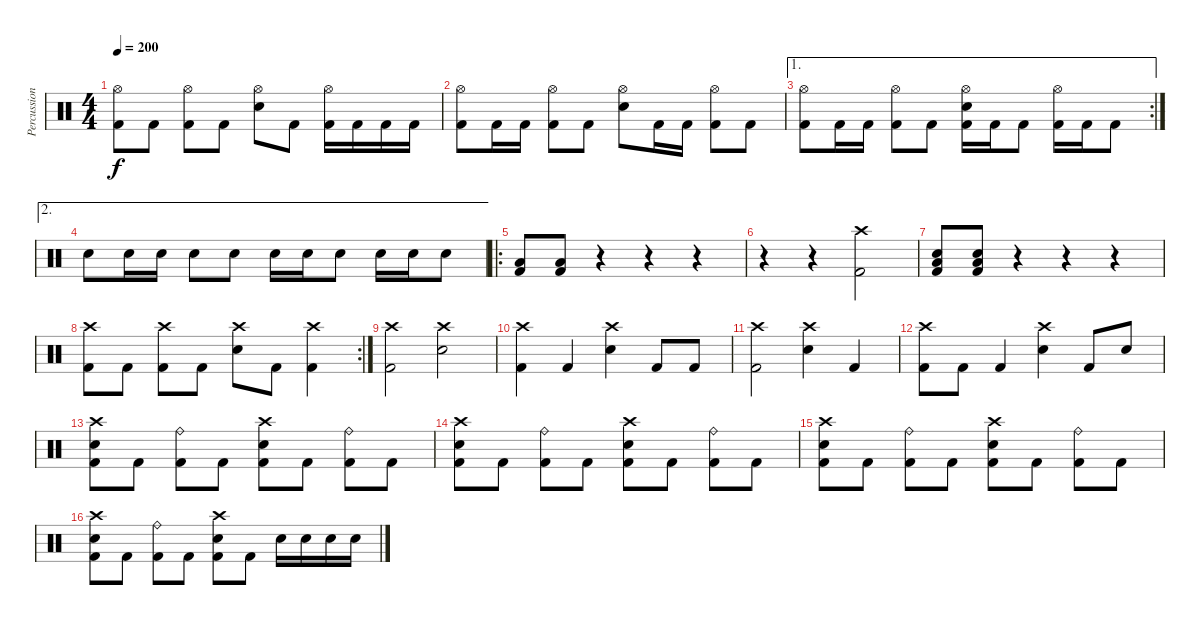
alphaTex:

\track ("Percussions" "Percussion") {instrument percussion}
\staff {score}
\articulation defaults
\ts (4 4)
\tempo 200
\clef neutral
\ks c
("Hi-Hat (open)" "Kick (hit) 2").8{dy f} "Kick (hit) 2".8 ("Hi-Hat (open)" "Kick (hit) 2").8 "Kick (hit) 2".8 ("Hi-Hat (open)" "Snare (hit) 2").8 "Kick (hit) 2".8 ("Hi-Hat (open)" "Kick (hit) 2").16 "Kick (hit) 2".16 "Kick (hit) 2".16 "Kick (hit) 2".16 |
("Hi-Hat (open)" "Kick (hit) 2").8 "Kick (hit) 2".16 "Kick (hit) 2".16 ("Hi-Hat (open)" "Kick (hit) 2").8 "Kick (hit) 2".8 ("Hi-Hat (open)" "Snare (hit) 2").8 "Kick (hit) 2".16 "Kick (hit) 2".16 ("Hi-Hat (open)" "Kick (hit) 2").8 "Kick (hit) 2".8 |
\ae 1
\rc 2
("Hi-Hat (open)" "Kick (hit) 2").8 "Kick (hit) 2".16 "Kick (hit) 2".16 ("Hi-Hat (open)" "Kick (hit) 2").8 "Kick (hit) 2".8 ("Hi-Hat (open)" "Snare (hit) 2" "Kick (hit) 2").16 "Kick (hit) 2".16 "Kick (hit) 2".8 ("Hi-Hat (open)" "Kick (hit) 2").16 "Kick (hit) 2".16 "Kick (hit) 2".8 |
\ae 2 "Snare (hit) 2".8 "Snare (hit) 2".16 "Snare (hit) 2".16 "Snare (hit) 2".8 "Snare (hit) 2".8 "Snare (hit) 2".16 "Snare (hit) 2".16 "Snare (hit) 2".8 "Snare (hit) 2".16 "Snare (hit) 2".16 "Snare (hit) 2".8
|
\ro
("Low Floor Tom (hit)" "Kick (hit) 2").8 ("Low Floor Tom (hit)" "Kick (hit) 2").8 r.4 r.4 r.4 |
r.4 r.4 ("Crash high (hit)" "Kick (hit) 2").2 |
("Snare (hit) 2" "Low Floor Tom (hit)" "Kick (hit) 2").8 ("Snare (hit) 2" "Low Floor Tom (hit)" "Kick (hit) 2").8 r.4 r.4 r.4 |
\rc 2
("Crash high (hit)" "Kick (hit) 2").8 "Kick (hit) 2".8 ("Crash high (hit)" "Kick (hit) 2").8 "Kick (hit) 2".8 ("Crash high (hit)" "Snare (hit) 2").8 "Kick (hit) 2".8 ("Crash high (hit)" "Kick (hit) 2").4 |
("Crash high (hit)" "Kick (hit) 2").2 ("Crash high (hit)" "Snare (hit) 2").2 |
("Crash high (hit)" "Kick (hit) 2").4 "Kick (hit) 2".4 ("Crash high (hit)" "Snare (hit) 2").4 "Kick (hit) 2".8 "Kick (hit) 2".8 |
("Crash high (hit)" "Kick (hit) 2").2 ("Crash high (hit)" "Snare (hit) 2").4 "Kick (hit) 2".4 |
("Crash high (hit)" "Kick (hit) 2").8 "Kick (hit) 2".8 "Kick (hit) 2".4 ("Crash high (hit)" "Snare (hit) 2").4 "Kick (hit) 2".8 "Snare (hit) 2".8 |
("Crash high (hit)" "Snare (hit) 2" "Kick (hit) 2").8 "Kick (hit) 2".8 ("Ride (bell)" "Kick (hit) 2").8 "Kick (hit) 2".8 ("Crash high (hit)" "Snare (hit) 2" "Kick (hit) 2").8 "Kick (hit) 2".8 ("Ride (bell)" "Kick (hit) 2").8 "Kick (hit) 2".8 |
("Crash high (hit)" "Snare (hit) 2" "Kick (hit) 2").8 "Kick (hit) 2".8 ("Ride (bell)" "Kick (hit) 2").8 "Kick (hit) 2".8 ("Crash high (hit)" "Snare (hit) 2" "Kick (hit) 2").8 "Kick (hit) 2".8 ("Ride (bell)" "Kick (hit) 2").8 "Kick (hit) 2".8 |
("Crash high (hit)" "Snare (hit) 2" "Kick (hit) 2").8 "Kick (hit) 2".8 ("Ride (bell)" "Kick (hit) 2").8 "Kick (hit) 2".8 ("Crash high (hit)" "Snare (hit) 2" "Kick (hit) 2").8 "Kick (hit) 2".8 ("Ride (bell)" "Kick (hit) 2").8 "Kick (hit) 2".8 |
("Crash high (hit)" "Snare (hit) 2" "Kick (hit) 2").8 "Kick (hit) 2".8 ("Ride (bell)" "Kick (hit) 2").8 "Kick (hit) 2".8 ("Crash high (hit)" "Snare (hit) 2" "Kick (hit) 2").8 "Kick (hit) 2".8 "Snare (hit) 2".16 "Snare (hit) 2".16 "Snare (hit) 2".16 "Snare (hit) 2".16
